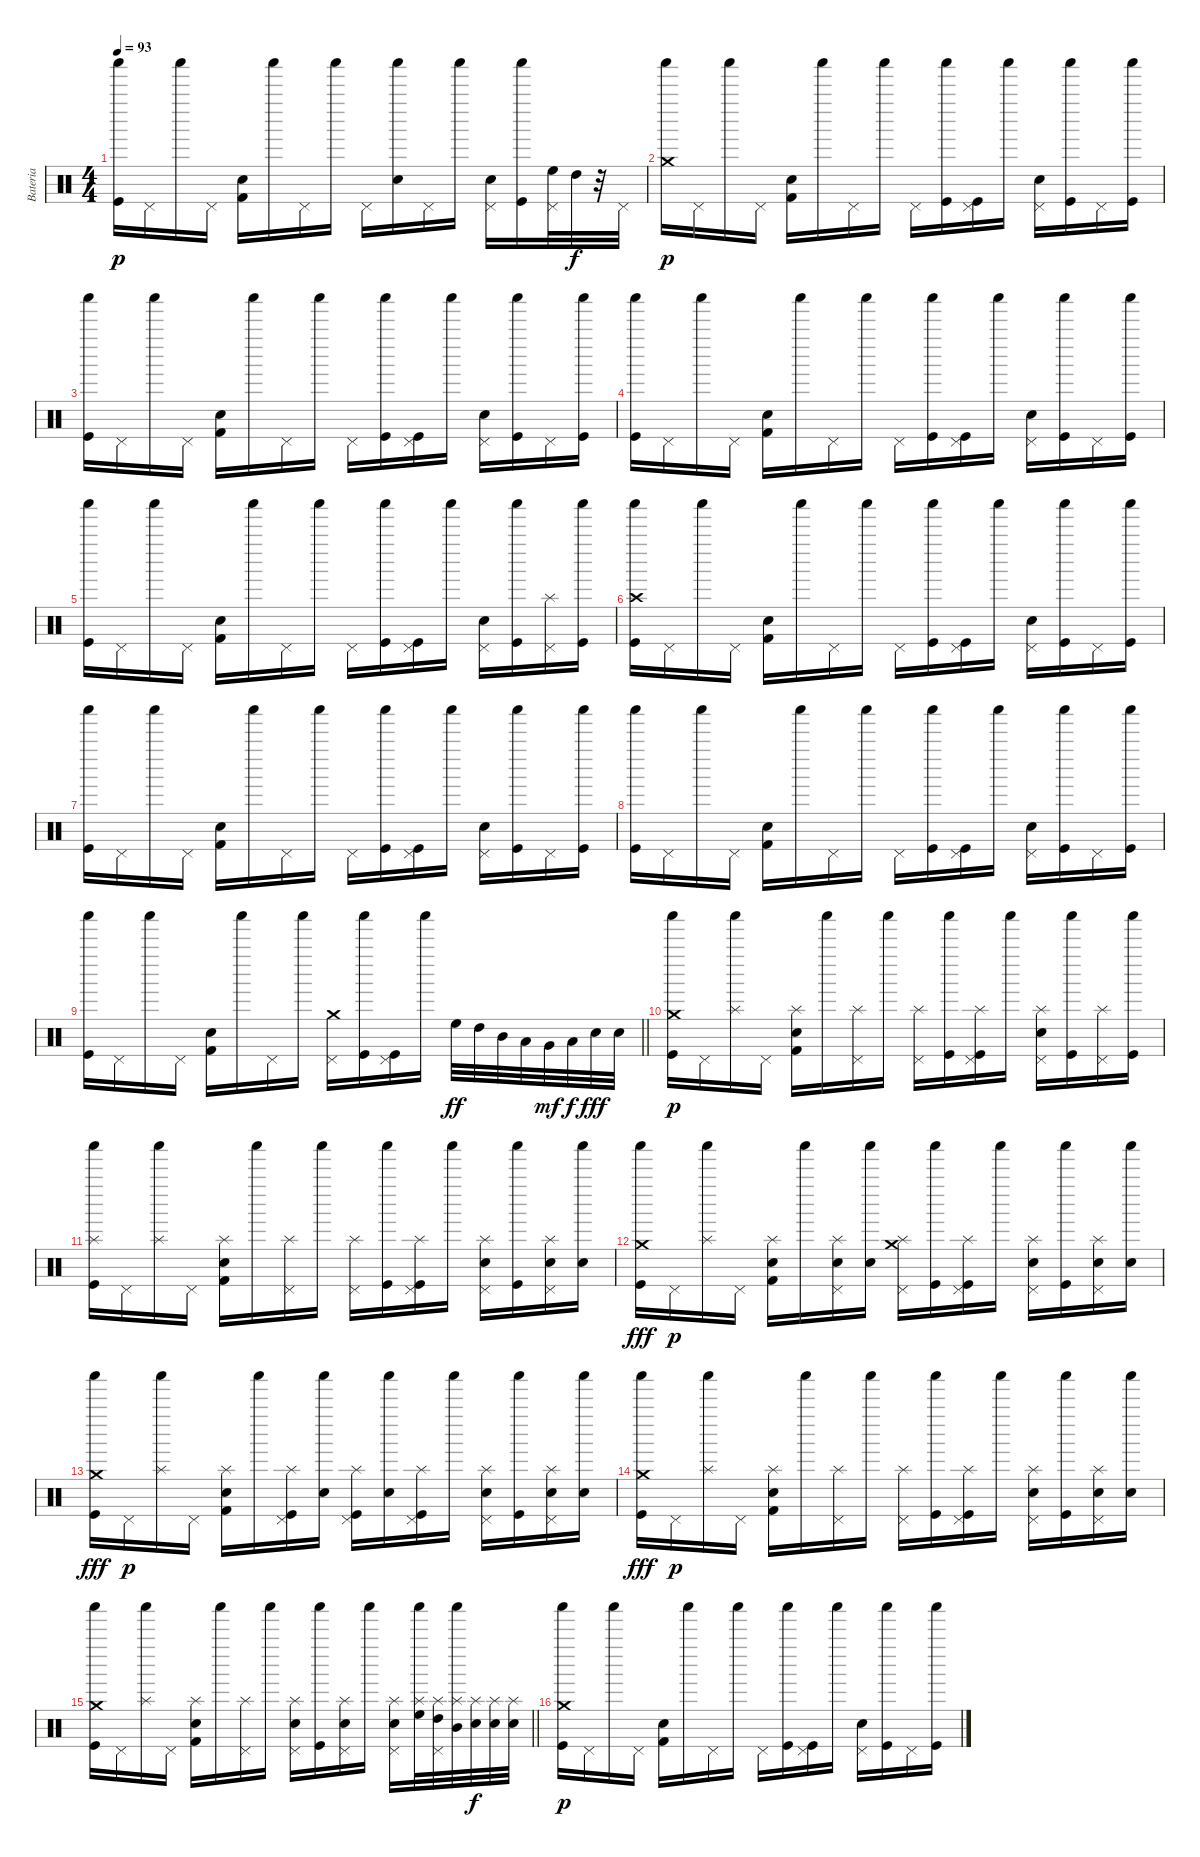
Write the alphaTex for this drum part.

\track ("Bateria" "Bateria") {instrument percussion}
\staff {score}
\articulation defaults
\ts (4 4)
\tempo 93
\clef neutral
\ks c
("Kick (hit)" "Shaker (hit)").16{dy p} "Pedal Hi-Hat (hit)".16 "Shaker (hit)".16 "Pedal Hi-Hat (hit)".16 ("Electric Snare (hit)" "Kick (hit) 2").16 "Shaker (hit)".16 "Pedal Hi-Hat (hit)".16 "Shaker (hit)".16 "Pedal Hi-Hat (hit)".16 ("Electric Snare (hit)" "Shaker (hit)").16 "Pedal Hi-Hat (hit)".16 "Shaker (hit)".16 ("Electric Snare (hit)" "Pedal Hi-Hat (hit)").16 ("Kick (hit)" "Shaker (hit)").16 ("High Floor Tom (hit)" "Pedal Hi-Hat (hit)").32 "High Tom (hit)".32{dy f} r.32 "Pedal Hi-Hat (hit)".32 |
("Crash medium (hit)" "Shaker (hit)").16{dy p} "Pedal Hi-Hat (hit)".16 "Shaker (hit)".16 "Pedal Hi-Hat (hit)".16 ("Electric Snare (hit)" "Kick (hit) 2").16 "Shaker (hit)".16 "Pedal Hi-Hat (hit)".16 "Shaker (hit)".16 "Pedal Hi-Hat (hit)".16 ("Kick (hit)" "Shaker (hit)").16 ("Kick (hit)" "Pedal Hi-Hat (hit)").16 "Shaker (hit)".16 ("Electric Snare (hit)" "Pedal Hi-Hat (hit)").16 ("Kick (hit)" "Shaker (hit)").16 "Pedal Hi-Hat (hit)".16 ("Kick (hit)" "Shaker (hit)").16 |
("Kick (hit)" "Shaker (hit)").16 "Pedal Hi-Hat (hit)".16 "Shaker (hit)".16 "Pedal Hi-Hat (hit)".16 ("Electric Snare (hit)" "Kick (hit) 2").16 "Shaker (hit)".16 "Pedal Hi-Hat (hit)".16 "Shaker (hit)".16 "Pedal Hi-Hat (hit)".16 ("Kick (hit)" "Shaker (hit)").16 ("Kick (hit)" "Pedal Hi-Hat (hit)").16 "Shaker (hit)".16 ("Electric Snare (hit)" "Pedal Hi-Hat (hit)").16 ("Kick (hit)" "Shaker (hit)").16 "Pedal Hi-Hat (hit)".16 ("Kick (hit)" "Shaker (hit)").16 |
("Kick (hit)" "Shaker (hit)").16 "Pedal Hi-Hat (hit)".16 "Shaker (hit)".16 "Pedal Hi-Hat (hit)".16 ("Electric Snare (hit)" "Kick (hit) 2").16 "Shaker (hit)".16 "Pedal Hi-Hat (hit)".16 "Shaker (hit)".16 "Pedal Hi-Hat (hit)".16 ("Kick (hit)" "Shaker (hit)").16 ("Kick (hit)" "Pedal Hi-Hat (hit)").16 "Shaker (hit)".16 ("Electric Snare (hit)" "Pedal Hi-Hat (hit)").16 ("Kick (hit)" "Shaker (hit)").16 "Pedal Hi-Hat (hit)".16 ("Kick (hit)" "Shaker (hit)").16 |
("Kick (hit)" "Shaker (hit)").16 "Pedal Hi-Hat (hit)".16 "Shaker (hit)".16 "Pedal Hi-Hat (hit)".16 ("Electric Snare (hit)" "Kick (hit) 2").16 "Shaker (hit)".16 "Pedal Hi-Hat (hit)".16 "Shaker (hit)".16 "Pedal Hi-Hat (hit)".16 ("Kick (hit)" "Shaker (hit)").16 ("Kick (hit)" "Pedal Hi-Hat (hit)").16 "Shaker (hit)".16 ("Electric Snare (hit)" "Pedal Hi-Hat (hit)").16 ("Kick (hit)" "Shaker (hit)").16 ("Pedal Hi-Hat (hit)" "Splash (hit)").16 ("Kick (hit)" "Shaker (hit)").16 |
("Kick (hit)" "Shaker (hit)" "Crash high (hit)").16 "Pedal Hi-Hat (hit)".16 "Shaker (hit)".16 "Pedal Hi-Hat (hit)".16 ("Electric Snare (hit)" "Kick (hit) 2").16 "Shaker (hit)".16 "Pedal Hi-Hat (hit)".16 "Shaker (hit)".16 "Pedal Hi-Hat (hit)".16 ("Kick (hit)" "Shaker (hit)").16 ("Kick (hit)" "Pedal Hi-Hat (hit)").16 "Shaker (hit)".16 ("Electric Snare (hit)" "Pedal Hi-Hat (hit)").16 ("Kick (hit)" "Shaker (hit)").16 "Pedal Hi-Hat (hit)".16 ("Kick (hit)" "Shaker (hit)").16 |
("Kick (hit)" "Shaker (hit)").16 "Pedal Hi-Hat (hit)".16 "Shaker (hit)".16 "Pedal Hi-Hat (hit)".16 ("Electric Snare (hit)" "Kick (hit) 2").16 "Shaker (hit)".16 "Pedal Hi-Hat (hit)".16 "Shaker (hit)".16 "Pedal Hi-Hat (hit)".16 ("Kick (hit)" "Shaker (hit)").16 ("Kick (hit)" "Pedal Hi-Hat (hit)").16 "Shaker (hit)".16 ("Electric Snare (hit)" "Pedal Hi-Hat (hit)").16 ("Kick (hit)" "Shaker (hit)").16 "Pedal Hi-Hat (hit)".16 ("Kick (hit)" "Shaker (hit)").16 |
("Kick (hit)" "Shaker (hit)").16 "Pedal Hi-Hat (hit)".16 "Shaker (hit)".16 "Pedal Hi-Hat (hit)".16 ("Electric Snare (hit)" "Kick (hit) 2").16 "Shaker (hit)".16 "Pedal Hi-Hat (hit)".16 "Shaker (hit)".16 "Pedal Hi-Hat (hit)".16 ("Kick (hit)" "Shaker (hit)").16 ("Kick (hit)" "Pedal Hi-Hat (hit)").16 "Shaker (hit)".16 ("Electric Snare (hit)" "Pedal Hi-Hat (hit)").16 ("Kick (hit)" "Shaker (hit)").16 "Pedal Hi-Hat (hit)".16 ("Kick (hit)" "Shaker (hit)").16 |
\barLineRight lightlight
("Kick (hit)" "Shaker (hit)").16 "Pedal Hi-Hat (hit)".16 "Shaker (hit)".16 "Pedal Hi-Hat (hit)".16 ("Electric Snare (hit)" "Kick (hit) 2").16 "Shaker (hit)".16 "Pedal Hi-Hat (hit)".16 "Shaker (hit)".16 ("Crash medium (hit)" "Pedal Hi-Hat (hit)").16 ("Kick (hit)" "Shaker (hit)").16 ("Kick (hit)" "Pedal Hi-Hat (hit)").16 "Shaker (hit)".16 "High Floor Tom (hit)".32{dy ff} "High Tom (hit)".32 "Mid Tom (hit)".32 "Low Tom (hit)".32 "Very Low Tom (hit)".32{dy mf} "Low Floor Tom (hit)".32{dy f} "Electric Snare (hit)".32{dy fff} "Electric Snare (hit)".32 |
("Kick (hit)" "Shaker (hit)" "Crash medium (hit)").16{dy p} "Pedal Hi-Hat (hit)".16 ("Shaker (hit)" "Splash (hit)").16 "Pedal Hi-Hat (hit)".16 ("Electric Snare (hit)" "Kick (hit) 2" "Splash (hit)").16 "Shaker (hit)".16 ("Pedal Hi-Hat (hit)" "Splash (hit)").16 "Shaker (hit)".16 ("Pedal Hi-Hat (hit)" "Splash (hit)").16 ("Kick (hit)" "Shaker (hit)").16 ("Kick (hit)" "Pedal Hi-Hat (hit)" "Splash (hit)").16 "Shaker (hit)".16 ("Electric Snare (hit)" "Pedal Hi-Hat (hit)" "Splash (hit)").16 ("Kick (hit)" "Shaker (hit)").16 ("Pedal Hi-Hat (hit)" "Splash (hit)").16 ("Kick (hit)" "Shaker (hit)").16 |
("Kick (hit)" "Shaker (hit)" "Splash (hit)").16 "Pedal Hi-Hat (hit)".16 ("Shaker (hit)" "Splash (hit)").16 "Pedal Hi-Hat (hit)".16 ("Electric Snare (hit)" "Kick (hit) 2" "Splash (hit)").16 "Shaker (hit)".16 ("Pedal Hi-Hat (hit)" "Splash (hit)").16 "Shaker (hit)".16 ("Pedal Hi-Hat (hit)" "Splash (hit)").16 ("Kick (hit)" "Shaker (hit)").16 ("Kick (hit)" "Pedal Hi-Hat (hit)" "Splash (hit)").16 "Shaker (hit)".16 ("Electric Snare (hit)" "Pedal Hi-Hat (hit)" "Splash (hit)").16 ("Kick (hit)" "Shaker (hit)").16 ("Electric Snare (hit)" "Pedal Hi-Hat (hit)" "Splash (hit)").16 ("Electric Snare (hit)" "Shaker (hit)").16 |
("Kick (hit)" "Shaker (hit)" "Crash medium (hit)").16{dy fff} "Pedal Hi-Hat (hit)".16{dy p} ("Shaker (hit)" "Splash (hit)").16 "Pedal Hi-Hat (hit)".16 ("Electric Snare (hit)" "Kick (hit) 2" "Splash (hit)").16 "Shaker (hit)".16 ("Electric Snare (hit)" "Pedal Hi-Hat (hit)" "Splash (hit)").16 ("Electric Snare (hit)" "Shaker (hit)").16 ("Crash medium (hit)" "Pedal Hi-Hat (hit)" "Splash (hit)").16 ("Kick (hit)" "Shaker (hit)").16 ("Kick (hit)" "Pedal Hi-Hat (hit)" "Splash (hit)").16 "Shaker (hit)".16 ("Electric Snare (hit)" "Pedal Hi-Hat (hit)" "Splash (hit)").16 ("Kick (hit)" "Shaker (hit)").16 ("Electric Snare (hit)" "Pedal Hi-Hat (hit)" "Splash (hit)").16 ("Electric Snare (hit)" "Shaker (hit)").16 |
("Kick (hit)" "Shaker (hit)" "Crash medium (hit)").16{dy fff} "Pedal Hi-Hat (hit)".16{dy p} ("Shaker (hit)" "Splash (hit)").16 "Pedal Hi-Hat (hit)".16 ("Electric Snare (hit)" "Kick (hit) 2" "Splash (hit)").16 "Shaker (hit)".16 ("Kick (hit)" "Pedal Hi-Hat (hit)" "Splash (hit)").16 ("Electric Snare (hit)" "Shaker (hit)").16 ("Kick (hit)" "Pedal Hi-Hat (hit)" "Splash (hit)").16 ("Electric Snare (hit)" "Shaker (hit)").16 ("Kick (hit)" "Pedal Hi-Hat (hit)" "Splash (hit)").16 "Shaker (hit)".16 ("Electric Snare (hit)" "Pedal Hi-Hat (hit)" "Splash (hit)").16 ("Kick (hit)" "Shaker (hit)").16 ("Electric Snare (hit)" "Pedal Hi-Hat (hit)" "Splash (hit)").16 ("Electric Snare (hit)" "Shaker (hit)").16 |
("Kick (hit)" "Shaker (hit)" "Crash medium (hit)").16{dy fff} "Pedal Hi-Hat (hit)".16{dy p} ("Shaker (hit)" "Splash (hit)").16 "Pedal Hi-Hat (hit)".16 ("Electric Snare (hit)" "Kick (hit) 2" "Splash (hit)").16 "Shaker (hit)".16 ("Pedal Hi-Hat (hit)" "Splash (hit)").16 "Shaker (hit)".16 ("Pedal Hi-Hat (hit)" "Splash (hit)").16 ("Kick (hit)" "Shaker (hit)").16 ("Kick (hit)" "Pedal Hi-Hat (hit)" "Splash (hit)").16 "Shaker (hit)".16 ("Electric Snare (hit)" "Pedal Hi-Hat (hit)" "Splash (hit)").16 ("Kick (hit)" "Shaker (hit)").16 ("Electric Snare (hit)" "Pedal Hi-Hat (hit)" "Splash (hit)").16 ("Electric Snare (hit)" "Shaker (hit)").16 |
\barLineRight lightlight
("Kick (hit)" "Shaker (hit)" "Crash medium (hit)").16 "Pedal Hi-Hat (hit)".16 ("Shaker (hit)" "Splash (hit)").16 "Pedal Hi-Hat (hit)".16 ("Electric Snare (hit)" "Kick (hit) 2" "Splash (hit)").16 "Shaker (hit)".16 ("Pedal Hi-Hat (hit)" "Splash (hit)").16 "Shaker (hit)".16 ("Electric Snare (hit)" "Pedal Hi-Hat (hit)" "Splash (hit)").16 ("Kick (hit)" "Shaker (hit)").16 ("Electric Snare (hit)" "Pedal Hi-Hat (hit)" "Splash (hit)").16 "Shaker (hit)".16 ("Electric Snare (hit)" "Pedal Hi-Hat (hit)" "Splash (hit)").16 ("High Floor Tom (hit)" "Shaker (hit)" "Splash (hit)").32 ("High Tom (hit)" "Pedal Hi-Hat (hit)" "Splash (hit)").32 ("Mid Tom (hit)" "Shaker (hit)" "Splash (hit)").32 ("Electric Snare (hit)" "Splash (hit)").32{dy f} ("Electric Snare (hit)" "Splash (hit)").32 ("Electric Snare (hit)" "Splash (hit)").32 |
("Kick (hit)" "Shaker (hit)" "Crash medium (hit)").16{dy p} "Pedal Hi-Hat (hit)".16 "Shaker (hit)".16 "Pedal Hi-Hat (hit)".16 ("Electric Snare (hit)" "Kick (hit) 2").16 "Shaker (hit)".16 "Pedal Hi-Hat (hit)".16 "Shaker (hit)".16 "Pedal Hi-Hat (hit)".16 ("Kick (hit)" "Shaker (hit)").16 ("Kick (hit)" "Pedal Hi-Hat (hit)").16 "Shaker (hit)".16 ("Electric Snare (hit)" "Pedal Hi-Hat (hit)").16 ("Kick (hit)" "Shaker (hit)").16 "Pedal Hi-Hat (hit)".16 ("Kick (hit)" "Shaker (hit)").16
